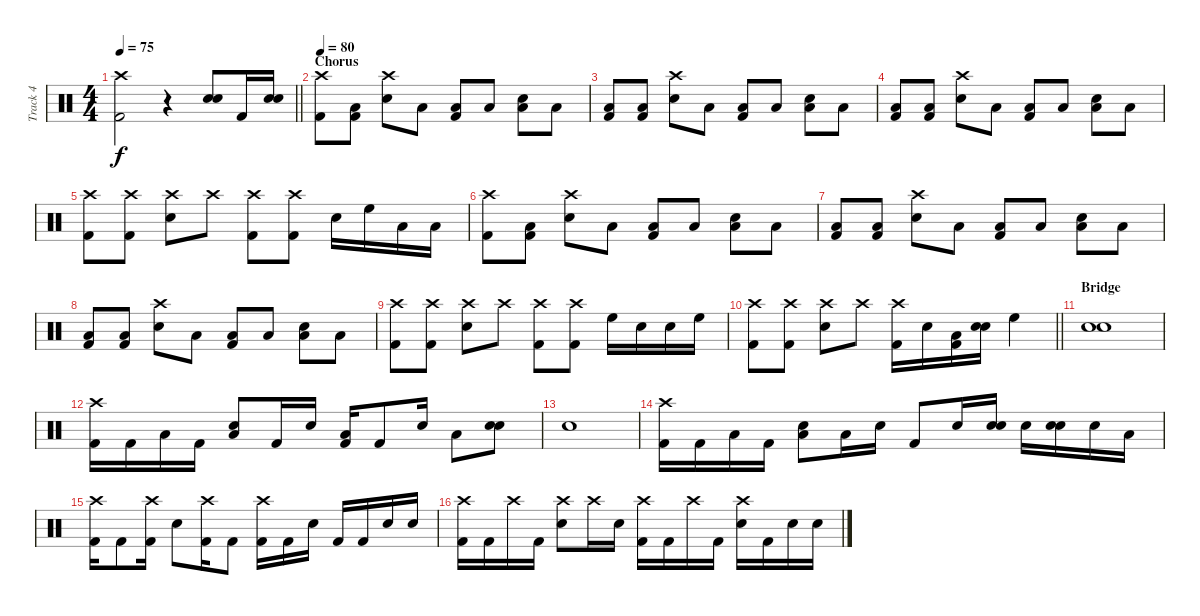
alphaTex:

\track ("Track 4" "Track 4") {instrument percussion}
\staff {score}
\articulation defaults
\ts (4 4)
\tempo 75
\clef neutral
\barLineRight lightlight
\ks c
("Crash high (hit)" "Kick (hit) 2").2{dy f} r.4 ("Electric Snare (hit)" "Snare (hit) 2").8 "Kick (hit) 2".16 ("Electric Snare (hit)" "Snare (hit) 2").16 |
\section ("" "Chorus")
\tempo 80
("Crash high (hit)" "Kick (hit) 2").8 ("Low Tom (hit)" "Kick (hit) 2").8 ("Crash high (hit)" "Snare (hit) 2").8 "Low Tom (hit)".8 ("Low Tom (hit)" "Kick (hit) 2").8 "Low Tom (hit)".8 ("Low Tom (hit)" "Snare (hit) 2").8 "Low Tom (hit)".8 |
("Low Tom (hit)" "Kick (hit) 2").8 ("Low Tom (hit)" "Kick (hit) 2").8 ("Crash high (hit)" "Snare (hit) 2").8 "Low Tom (hit)".8 ("Low Tom (hit)" "Kick (hit) 2").8 "Low Tom (hit)".8 ("Low Tom (hit)" "Snare (hit) 2").8 "Low Tom (hit)".8 |
("Low Tom (hit)" "Kick (hit) 2").8 ("Low Tom (hit)" "Kick (hit) 2").8 ("Crash high (hit)" "Snare (hit) 2").8 "Low Tom (hit)".8 ("Low Tom (hit)" "Kick (hit) 2").8 "Low Tom (hit)".8 ("Low Tom (hit)" "Snare (hit) 2").8 "Low Tom (hit)".8 |
("Crash high (hit)" "Kick (hit) 2").8 ("Crash high (hit)" "Kick (hit) 2").8 ("Crash high (hit)" "Snare (hit) 2").8 "Crash high (hit)".8 ("Crash high (hit)" "Kick (hit) 2").8 ("Crash high (hit)" "Kick (hit) 2").8 "Snare (hit) 2".16 "High Floor Tom (hit)".16 "Low Tom (hit)".16 "Low Floor Tom (hit)".16 |
("Crash high (hit)" "Kick (hit) 2").8 ("Low Tom (hit)" "Kick (hit) 2").8 ("Crash high (hit)" "Snare (hit) 2").8 "Low Tom (hit)".8 ("Low Tom (hit)" "Kick (hit) 2").8 "Low Tom (hit)".8 ("Low Tom (hit)" "Snare (hit) 2").8 "Low Tom (hit)".8 |
("Low Tom (hit)" "Kick (hit) 2").8 ("Low Tom (hit)" "Kick (hit) 2").8 ("Crash high (hit)" "Snare (hit) 2").8 "Low Tom (hit)".8 ("Low Tom (hit)" "Kick (hit) 2").8 "Low Tom (hit)".8 ("Low Tom (hit)" "Snare (hit) 2").8 "Low Tom (hit)".8 |
("Low Tom (hit)" "Kick (hit) 2").8 ("Low Tom (hit)" "Kick (hit) 2").8 ("Crash high (hit)" "Snare (hit) 2").8 "Low Tom (hit)".8 ("Low Tom (hit)" "Kick (hit) 2").8 "Low Tom (hit)".8 ("Low Tom (hit)" "Snare (hit) 2").8 "Low Tom (hit)".8 |
("Crash high (hit)" "Kick (hit) 2").8 ("Crash high (hit)" "Kick (hit) 2").8 ("Crash high (hit)" "Snare (hit) 2").8 "Crash high (hit)".8 ("Crash high (hit)" "Kick (hit) 2").8 ("Crash high (hit)" "Kick (hit) 2").8 "High Floor Tom (hit)".16 "Snare (hit) 2".16 "Snare (hit) 2".16 "High Floor Tom (hit)".16 |
\barLineRight lightlight
("Crash high (hit)" "Kick (hit) 2").8 ("Crash high (hit)" "Kick (hit) 2").8 ("Crash high (hit)" "Snare (hit) 2").8 "Crash high (hit)".8 ("Crash high (hit)" "Kick (hit) 2").16 "Snare (hit) 2".16 ("Low Tom (hit)" "Kick (hit) 2").16 ("Electric Snare (hit)" "Snare (hit) 2").16 "High Floor Tom (hit)".4 |
\section ("" "Bridge")
("Electric Snare (hit)" "Snare (hit) 2").1 |
("Crash high (hit)" "Kick (hit) 2").16 "Kick (hit) 2".16 "Low Tom (hit)".16 "Kick (hit) 2".16 ("Low Tom (hit)" "Snare (hit) 2").8 "Kick (hit) 2".16 "Snare (hit) 2".16 ("Low Tom (hit)" "Kick (hit) 2").16 "Kick (hit) 2".8 "Snare (hit) 2".16 "Low Tom (hit)".8 ("Snare (hit) 2" "Electric Snare (hit)").8 |
"Snare (hit) 2".1 |
("Crash high (hit)" "Kick (hit) 2").16 "Kick (hit) 2".16 "Low Tom (hit)".16 "Kick (hit) 2".16 ("Low Tom (hit)" "Snare (hit) 2").8 "Low Tom (hit)".16 "Snare (hit) 2".16 "Kick (hit) 2".8 "Snare (hit) 2".16 ("Electric Snare (hit)" "Snare (hit) 2").16 "Snare (hit) 2".16 ("Electric Snare (hit)" "Snare (hit) 2").16 "Snare (hit) 2".16 "Low Floor Tom (hit)".16 |
("Crash high (hit)" "Kick (hit) 2").16 "Kick (hit) 2".8 ("Crash high (hit)" "Kick (hit) 2").16 "Snare (hit) 2".8 ("Crash high (hit)" "Kick (hit) 2").16 "Kick (hit) 2".8 ("Crash high (hit)" "Kick (hit) 2").16 "Kick (hit) 2".16 "Snare (hit) 2".16 "Kick (hit) 2".16 "Kick (hit) 2".16 "Snare (hit) 2".16 "Snare (hit) 2".16 |
("Crash high (hit)" "Kick (hit) 2").16 "Kick (hit) 2".16 "Crash high (hit)".16 "Kick (hit) 2".16 ("Crash high (hit)" "Snare (hit) 2").8 "Crash high (hit)".16 "Snare (hit) 2".16 ("Crash high (hit)" "Kick (hit) 2").16 "Kick (hit) 2".16 "Crash high (hit)".16 "Kick (hit) 2".16 ("Crash high (hit)" "Snare (hit) 2").16 "Kick (hit) 2".16 "Snare (hit) 2".16 "Snare (hit) 2".16
